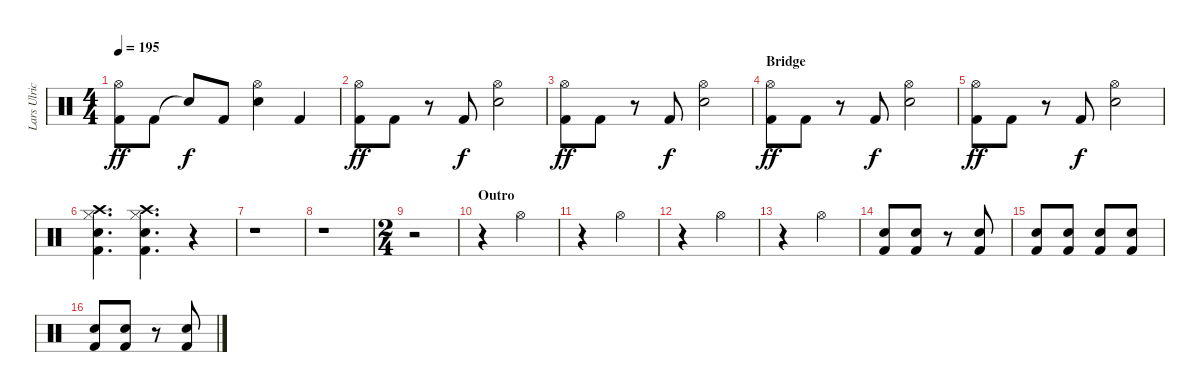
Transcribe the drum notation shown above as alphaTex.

\track ("Lars Ulrich" "Lars Ulric") {instrument percussion}
\staff {score}
\articulation defaults
\ts (4 4)
\tempo 195
\clef neutral
\ks c
("Kick (hit) 2" "Hi-Hat (open)").8{dy ff} "Kick (hit) 2".8 "Snare (hit)"{t}.8{dy f} "Kick (hit) 2".8 ("Snare (hit) 2" "Hi-Hat (open)").4 "Kick (hit) 2".4 |
("Kick (hit) 2" "Hi-Hat (open)").8{dy ff} "Kick (hit) 2".8 r.8 "Kick (hit) 2".8{dy f} ("Snare (hit) 2" "Hi-Hat (open)").2 |
("Kick (hit) 2" "Hi-Hat (open)").8{dy ff} "Kick (hit) 2".8 r.8 "Kick (hit) 2".8{dy f} ("Snare (hit) 2" "Hi-Hat (open)").2 |
\section ("" "Bridge")
("Kick (hit) 2" "Hi-Hat (open)").8{dy ff} "Kick (hit) 2".8 r.8 "Kick (hit) 2".8{dy f} ("Snare (hit) 2" "Hi-Hat (open)").2 |
("Kick (hit) 2" "Hi-Hat (open)").8{dy ff} "Kick (hit) 2".8 r.8 "Kick (hit) 2".8{dy f} ("Snare (hit) 2" "Hi-Hat (open)").2 |
("Kick (hit) 2" "Snare (hit) 2" "Hi-Hat (closed)" "Crash high (hit)").4{d} ("Kick (hit) 2" "Snare (hit) 2" "Hi-Hat (closed)" "Crash high (hit)").4{d} r.4 |
r.1 |
r.1 |
\ts (2 4)
r.2 |
\section ("" "Outro")
r.4 "Hi-Hat (open)".4 |
r.4 "Hi-Hat (open)".4 |
r.4 "Hi-Hat (open)".4 |
r.4 "Hi-Hat (open)".4 |
("Kick (hit) 2" "Snare (hit) 2").8 ("Kick (hit) 2" "Snare (hit) 2").8 r.8 ("Kick (hit) 2" "Snare (hit) 2").8 |
("Kick (hit) 2" "Snare (hit) 2").8 ("Kick (hit) 2" "Snare (hit) 2").8 ("Kick (hit) 2" "Snare (hit) 2").8 ("Kick (hit) 2" "Snare (hit) 2").8 |
("Kick (hit) 2" "Snare (hit) 2").8 ("Kick (hit) 2" "Snare (hit) 2").8 r.8 ("Kick (hit) 2" "Snare (hit) 2").8
